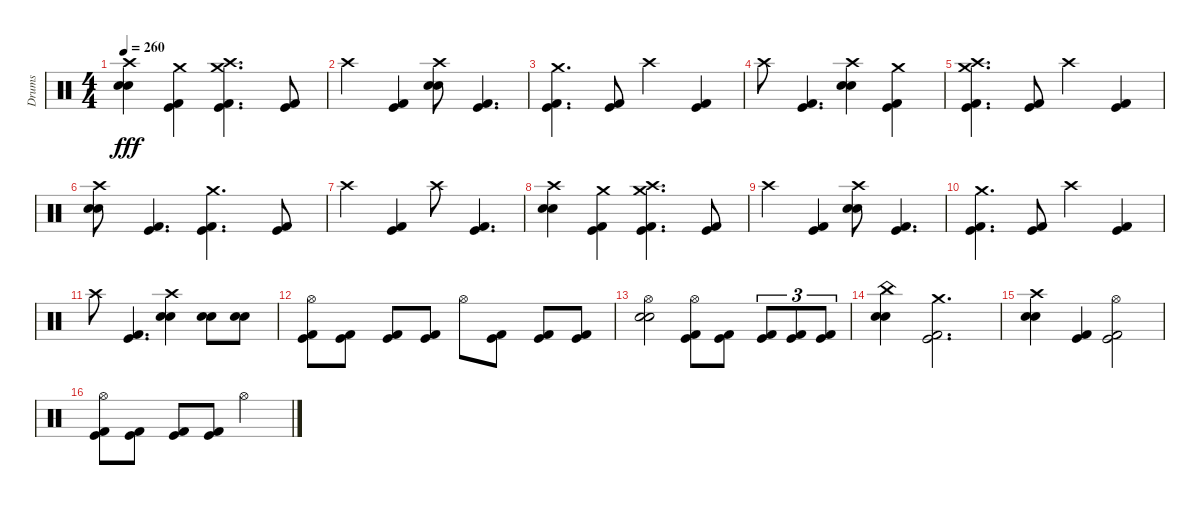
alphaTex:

\track ("Drums" "Drums") {instrument percussion}
\staff {score}
\articulation defaults
\ts (4 4)
\tempo 260
\clef neutral
\ks c
("Electric Snare (hit)" "Electric Snare (hit)" "Crash high (hit)").4{dy fff} ("Kick (hit)" "Kick (hit) 2" "Crash medium (hit)").4 ("Kick (hit)" "Kick (hit) 2" "Crash high (hit)" "Crash medium (hit)").4{d} ("Kick (hit)" "Kick (hit) 2").8 |
"Crash high (hit)".4 ("Kick (hit)" "Kick (hit) 2").4 ("Electric Snare (hit)" "Electric Snare (hit)" "Crash high (hit)").8 ("Kick (hit)" "Kick (hit) 2").4{d} |
("Kick (hit)" "Kick (hit) 2" "Crash medium (hit)").4{d} ("Kick (hit)" "Kick (hit) 2").8 "Crash high (hit)".4 ("Kick (hit)" "Kick (hit) 2").4 |
"Crash high (hit)".8 ("Kick (hit)" "Kick (hit) 2").4{d} ("Electric Snare (hit)" "Electric Snare (hit)" "Crash high (hit)").4 ("Kick (hit)" "Kick (hit) 2" "Crash medium (hit)").4 |
("Kick (hit)" "Kick (hit) 2" "Crash high (hit)" "Crash medium (hit)").4{d} ("Kick (hit)" "Kick (hit) 2").8 "Crash high (hit)".4 ("Kick (hit)" "Kick (hit) 2").4 |
("Electric Snare (hit)" "Electric Snare (hit)" "Crash high (hit)").8 ("Kick (hit)" "Kick (hit) 2").4{d} ("Kick (hit)" "Kick (hit) 2" "Crash medium (hit)").4{d} ("Kick (hit)" "Kick (hit) 2").8 |
"Crash high (hit)".4 ("Kick (hit)" "Kick (hit) 2").4 "Crash high (hit)".8 ("Kick (hit)" "Kick (hit) 2").4{d} |
("Electric Snare (hit)" "Electric Snare (hit)" "Crash high (hit)").4 ("Kick (hit)" "Kick (hit) 2" "Crash medium (hit)").4 ("Kick (hit)" "Kick (hit) 2" "Crash high (hit)" "Crash medium (hit)").4{d} ("Kick (hit)" "Kick (hit) 2").8 |
"Crash high (hit)".4 ("Kick (hit)" "Kick (hit) 2").4 ("Electric Snare (hit)" "Electric Snare (hit)" "Crash high (hit)").8 ("Kick (hit)" "Kick (hit) 2").4{d} |
("Kick (hit)" "Kick (hit) 2" "Crash medium (hit)").4{d} ("Kick (hit)" "Kick (hit) 2").8 "Crash high (hit)".4 ("Kick (hit)" "Kick (hit) 2").4 |
"Crash high (hit)".8 ("Kick (hit)" "Kick (hit) 2").4{d} ("Electric Snare (hit)" "Electric Snare (hit)" "Crash high (hit)").4 ("Electric Snare (hit)" "Electric Snare (hit)").8 ("Electric Snare (hit)" "Electric Snare (hit)").8 |
("Kick (hit)" "Kick (hit) 2" "Hi-Hat (open)").8 ("Kick (hit)" "Kick (hit) 2").8 ("Kick (hit)" "Kick (hit) 2").8 ("Kick (hit)" "Kick (hit) 2").8 "Hi-Hat (open)".8 ("Kick (hit)" "Kick (hit) 2").8 ("Kick (hit)" "Kick (hit) 2").8 ("Kick (hit)" "Kick (hit) 2").8 |
("Electric Snare (hit)" "Electric Snare (hit)" "Hi-Hat (open)").2 ("Kick (hit)" "Kick (hit) 2" "Hi-Hat (open)").8 ("Kick (hit)" "Kick (hit) 2").8 ("Kick (hit)" "Kick (hit) 2").8{tu (3 2)} ("Kick (hit)" "Kick (hit) 2").8{tu (3 2)} ("Kick (hit)" "Kick (hit) 2").8{tu (3 2)} |
("Electric Snare (hit)" "Electric Snare (hit)" "China (hit)").4 ("Kick (hit)" "Kick (hit) 2" "Crash medium (hit)").2{d} |
("Electric Snare (hit)" "Electric Snare (hit)" "Crash high (hit)").4 ("Kick (hit)" "Kick (hit) 2").4 ("Kick (hit)" "Kick (hit) 2" "Hi-Hat (open)").2 |
("Kick (hit)" "Kick (hit) 2" "Hi-Hat (open)").8 ("Kick (hit)" "Kick (hit) 2").8 ("Kick (hit)" "Kick (hit) 2").8 ("Kick (hit)" "Kick (hit) 2").8 "Hi-Hat (open)".2
